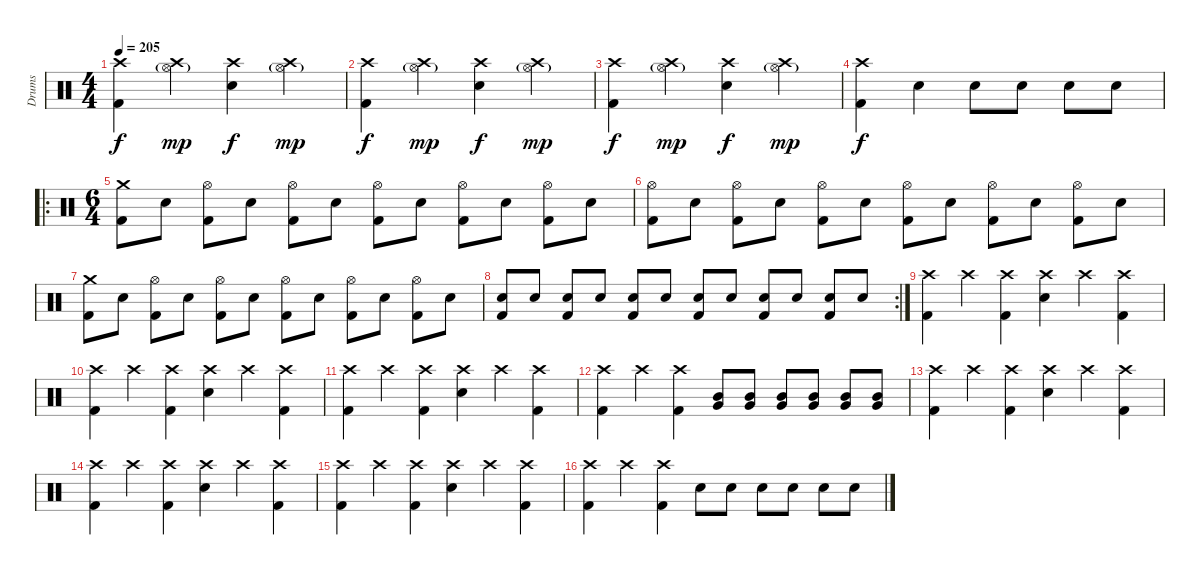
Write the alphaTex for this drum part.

\track ("Drums" "Drums") {instrument percussion}
\staff {score}
\articulation defaults
\ts (4 4)
\tempo 205
\clef neutral
\ks c
("Crash high (hit)" "Kick (hit) 2").4{dy f} ("Crash high (hit)" "Hi-Hat (open)"{g}).4{dy mp} ("Crash high (hit)" "Electric Snare (hit)").4{dy f} ("Crash high (hit)" "Hi-Hat (open)"{g}).4{dy mp} |
("Crash high (hit)" "Kick (hit) 2").4{dy f} ("Crash high (hit)" "Hi-Hat (open)"{g}).4{dy mp} ("Crash high (hit)" "Electric Snare (hit)").4{dy f} ("Crash high (hit)" "Hi-Hat (open)"{g}).4{dy mp} |
("Crash high (hit)" "Kick (hit) 2").4{dy f} ("Crash high (hit)" "Hi-Hat (open)"{g}).4{dy mp} ("Crash high (hit)" "Electric Snare (hit)").4{dy f} ("Crash high (hit)" "Hi-Hat (open)"{g}).4{dy mp} |
("Crash high (hit)" "Kick (hit) 2").4{dy f} "Electric Snare (hit)".4 "Electric Snare (hit)".8 "Electric Snare (hit)".8 "Electric Snare (hit)".8 "Electric Snare (hit)".8 |
\ro
\ts (6 4)
("Crash medium (hit)" "Kick (hit) 2").8 "Electric Snare (hit)".8 ("Hi-Hat (open)" "Kick (hit) 2").8 "Electric Snare (hit)".8 ("Hi-Hat (open)" "Kick (hit) 2").8 "Electric Snare (hit)".8 ("Hi-Hat (open)" "Kick (hit) 2").8 "Electric Snare (hit)".8 ("Hi-Hat (open)" "Kick (hit) 2").8 "Electric Snare (hit)".8 ("Hi-Hat (open)" "Kick (hit) 2").8 "Electric Snare (hit)".8 |
("Hi-Hat (open)" "Kick (hit) 2").8 "Electric Snare (hit)".8 ("Hi-Hat (open)" "Kick (hit) 2").8 "Electric Snare (hit)".8 ("Hi-Hat (open)" "Kick (hit) 2").8 "Electric Snare (hit)".8 ("Hi-Hat (open)" "Kick (hit) 2").8 "Electric Snare (hit)".8 ("Hi-Hat (open)" "Kick (hit) 2").8 "Electric Snare (hit)".8 ("Hi-Hat (open)" "Kick (hit) 2").8 "Electric Snare (hit)".8 |
("Crash medium (hit)" "Kick (hit) 2").8 "Electric Snare (hit)".8 ("Hi-Hat (open)" "Kick (hit) 2").8 "Electric Snare (hit)".8 ("Hi-Hat (open)" "Kick (hit) 2").8 "Electric Snare (hit)".8 ("Hi-Hat (open)" "Kick (hit) 2").8 "Electric Snare (hit)".8 ("Hi-Hat (open)" "Kick (hit) 2").8 "Electric Snare (hit)".8 ("Hi-Hat (open)" "Kick (hit) 2").8 "Electric Snare (hit)".8 |
\rc 2
("Electric Snare (hit)" "Kick (hit) 2").8 "Electric Snare (hit)".8 ("Electric Snare (hit)" "Kick (hit) 2").8 "Electric Snare (hit)".8 ("Electric Snare (hit)" "Kick (hit) 2").8 "Electric Snare (hit)".8 ("Electric Snare (hit)" "Kick (hit) 2").8 "Electric Snare (hit)".8 ("Electric Snare (hit)" "Kick (hit) 2").8 "Electric Snare (hit)".8 ("Electric Snare (hit)" "Kick (hit) 2").8 "Electric Snare (hit)".8 |
("Crash high (hit)" "Kick (hit) 2").4 "Crash high (hit)".4 ("Crash high (hit)" "Kick (hit) 2").4 ("Crash high (hit)" "Electric Snare (hit)").4 "Crash high (hit)".4 ("Crash high (hit)" "Kick (hit) 2").4 |
("Crash high (hit)" "Kick (hit) 2").4 "Crash high (hit)".4 ("Crash high (hit)" "Kick (hit) 2").4 ("Crash high (hit)" "Electric Snare (hit)").4 "Crash high (hit)".4 ("Crash high (hit)" "Kick (hit) 2").4 |
("Crash high (hit)" "Kick (hit) 2").4 "Crash high (hit)".4 ("Crash high (hit)" "Kick (hit) 2").4 ("Crash high (hit)" "Electric Snare (hit)").4 "Crash high (hit)".4 ("Crash high (hit)" "Kick (hit) 2").4 |
("Crash high (hit)" "Kick (hit) 2").4 "Crash high (hit)".4 ("Crash high (hit)" "Kick (hit) 2").4 ("Very Low Tom (hit)" "Mid Tom (hit)").8 ("Very Low Tom (hit)" "Mid Tom (hit)").8 ("Very Low Tom (hit)" "Mid Tom (hit)").8 ("Very Low Tom (hit)" "Mid Tom (hit)").8 ("Very Low Tom (hit)" "Mid Tom (hit)").8 ("Very Low Tom (hit)" "Mid Tom (hit)").8 |
("Crash high (hit)" "Kick (hit) 2").4 "Crash high (hit)".4 ("Crash high (hit)" "Kick (hit) 2").4 ("Crash high (hit)" "Electric Snare (hit)").4 "Crash high (hit)".4 ("Crash high (hit)" "Kick (hit) 2").4 |
("Crash high (hit)" "Kick (hit) 2").4 "Crash high (hit)".4 ("Crash high (hit)" "Kick (hit) 2").4 ("Crash high (hit)" "Electric Snare (hit)").4 "Crash high (hit)".4 ("Crash high (hit)" "Kick (hit) 2").4 |
("Crash high (hit)" "Kick (hit) 2").4 "Crash high (hit)".4 ("Crash high (hit)" "Kick (hit) 2").4 ("Crash high (hit)" "Electric Snare (hit)").4 "Crash high (hit)".4 ("Crash high (hit)" "Kick (hit) 2").4 |
("Crash high (hit)" "Kick (hit) 2").4 "Crash high (hit)".4 ("Crash high (hit)" "Kick (hit) 2").4 "Electric Snare (hit)".8 "Electric Snare (hit)".8 "Electric Snare (hit)".8 "Electric Snare (hit)".8 "Electric Snare (hit)".8 "Electric Snare (hit)".8
